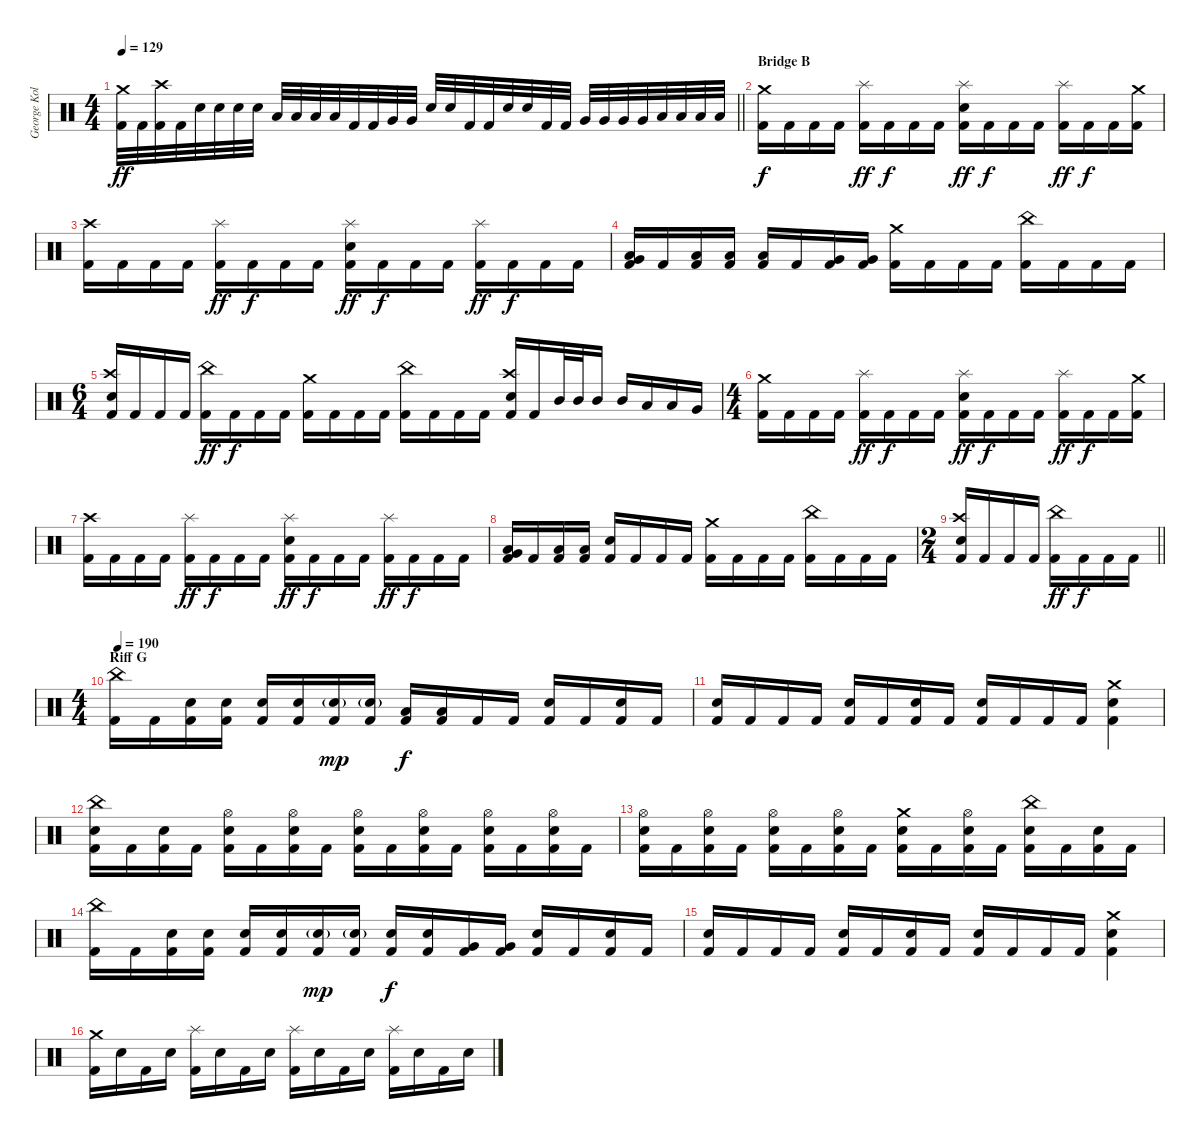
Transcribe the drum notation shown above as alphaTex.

\track ("George Kollias" "George Kol") {instrument percussion}
\staff {score}
\articulation defaults
\ts (4 4)
\tempo 129
\clef neutral
\barLineRight lightlight
\ks c
("Crash medium (hit)" "Kick (hit) 2").32{dy ff} "Kick (hit) 2".32 ("Crash high (hit)" "Kick (hit) 2").32 "Kick (hit) 2".32 "Electric Snare (hit)".32 "Electric Snare (hit)".32 "Electric Snare (hit)".32 "Electric Snare (hit)".32 "Low Tom (hit)".32 "Low Tom (hit)".32 "Low Tom (hit)".32 "Low Tom (hit)".32 "Kick (hit) 2".32 "Kick (hit) 2".32 "Very Low Tom (hit)".32 "Very Low Tom (hit)".32 "Electric Snare (hit)".32 "Electric Snare (hit)".32 "Kick (hit) 2".32 "Kick (hit) 2".32 "Electric Snare (hit)".32 "Electric Snare (hit)".32 "Kick (hit) 2".32 "Kick (hit) 2".32 "Very Low Tom (hit)".32 "Very Low Tom (hit)".32 "Very Low Tom (hit)".32 "Very Low Tom (hit)".32 "Low Floor Tom (hit)".32 "Low Floor Tom (hit)".32 "Low Floor Tom (hit)".32 "Low Floor Tom (hit)".32 |
\section ("" "Bridge B")
("Crash medium (hit)" "Kick (hit) 2").16{dy f} "Kick (hit) 2".16 "Kick (hit) 2".16 "Kick (hit) 2".16 ("Splash (hit)" "Kick (hit) 2").16{dy ff} "Kick (hit) 2".16{dy f} "Kick (hit) 2".16 "Kick (hit) 2".16 ("Splash (hit)" "Electric Snare (hit)" "Kick (hit) 2").16{dy ff} "Kick (hit) 2".16{dy f} "Kick (hit) 2".16 "Kick (hit) 2".16 ("Splash (hit)" "Kick (hit) 2").16{dy ff} "Kick (hit) 2".16{dy f} "Kick (hit) 2".16 ("Crash medium (hit)" "Kick (hit) 2").16 |
("Crash high (hit)" "Kick (hit) 2").16 "Kick (hit) 2".16 "Kick (hit) 2".16 "Kick (hit) 2".16 ("Splash (hit)" "Kick (hit) 2").16{dy ff} "Kick (hit) 2".16{dy f} "Kick (hit) 2".16 "Kick (hit) 2".16 ("Splash (hit)" "Electric Snare (hit)" "Kick (hit) 2").16{dy ff} "Kick (hit) 2".16{dy f} "Kick (hit) 2".16 "Kick (hit) 2".16 ("Splash (hit)" "Kick (hit) 2").16{dy ff} "Kick (hit) 2".16{dy f} "Kick (hit) 2".16 "Kick (hit) 2".16 |
("Low Tom (hit)" "Very Low Tom (hit)" "Kick (hit) 2").16 "Kick (hit) 2".16 ("Low Tom (hit)" "Kick (hit) 2").16 ("Low Tom (hit)" "Kick (hit) 2").16 ("Low Tom (hit)" "Kick (hit) 2").16 "Kick (hit) 2".16 ("Very Low Tom (hit)" "Kick (hit) 2").16 ("Very Low Tom (hit)" "Kick (hit) 2").16 ("Crash medium (hit)" "Kick (hit) 2").16 "Kick (hit) 2".16 "Kick (hit) 2".16 "Kick (hit) 2".16 ("China (hit)" "Kick (hit) 2").16 "Kick (hit) 2".16 "Kick (hit) 2".16 "Kick (hit) 2".16 |
\ts (6 4)
("Crash high (hit)" "Electric Snare (hit)" "Kick (hit) 2").16 "Kick (hit) 2".16 "Kick (hit) 2".16 "Kick (hit) 2".16 ("China (hit)" "Kick (hit) 2").16{dy ff} "Kick (hit) 2".16{dy f} "Kick (hit) 2".16 "Kick (hit) 2".16 ("Crash medium (hit)" "Kick (hit) 2").16 "Kick (hit) 2".16 "Kick (hit) 2".16 "Kick (hit) 2".16 ("China (hit)" "Kick (hit) 2").16 "Kick (hit) 2".16 "Kick (hit) 2".16 "Kick (hit) 2".16 ("Crash high (hit)" "Electric Snare (hit)" "Kick (hit) 2").16 "Kick (hit) 2".16 "Mid Tom (hit)".32 "Mid Tom (hit)".32 "Mid Tom (hit)".16 "Mid Tom (hit)".16 "Low Tom (hit)".16 "Low Tom (hit)".16 "Very Low Tom (hit)".16 |
\ts (4 4)
("Crash medium (hit)" "Kick (hit) 2").16 "Kick (hit) 2".16 "Kick (hit) 2".16 "Kick (hit) 2".16 ("Splash (hit)" "Kick (hit) 2").16{dy ff} "Kick (hit) 2".16{dy f} "Kick (hit) 2".16 "Kick (hit) 2".16 ("Splash (hit)" "Electric Snare (hit)" "Kick (hit) 2").16{dy ff} "Kick (hit) 2".16{dy f} "Kick (hit) 2".16 "Kick (hit) 2".16 ("Splash (hit)" "Kick (hit) 2").16{dy ff} "Kick (hit) 2".16{dy f} "Kick (hit) 2".16 ("Crash medium (hit)" "Kick (hit) 2").16 |
("Crash high (hit)" "Kick (hit) 2").16 "Kick (hit) 2".16 "Kick (hit) 2".16 "Kick (hit) 2".16 ("Splash (hit)" "Kick (hit) 2").16{dy ff} "Kick (hit) 2".16{dy f} "Kick (hit) 2".16 "Kick (hit) 2".16 ("Splash (hit)" "Electric Snare (hit)" "Kick (hit) 2").16{dy ff} "Kick (hit) 2".16{dy f} "Kick (hit) 2".16 "Kick (hit) 2".16 ("Splash (hit)" "Kick (hit) 2").16{dy ff} "Kick (hit) 2".16{dy f} "Kick (hit) 2".16 "Kick (hit) 2".16 |
("Low Tom (hit)" "Very Low Tom (hit)" "Kick (hit) 2").16 "Kick (hit) 2".16 ("Low Tom (hit)" "Kick (hit) 2").16 ("Low Tom (hit)" "Kick (hit) 2").16 ("Electric Snare (hit)" "Kick (hit) 2").16 "Kick (hit) 2".16 "Kick (hit) 2".16 "Kick (hit) 2".16 ("Crash medium (hit)" "Kick (hit) 2").16 "Kick (hit) 2".16 "Kick (hit) 2".16 "Kick (hit) 2".16 ("China (hit)" "Kick (hit) 2").16 "Kick (hit) 2".16 "Kick (hit) 2".16 "Kick (hit) 2".16 |
\ts (2 4)
\barLineRight lightlight
("Crash high (hit)" "Electric Snare (hit)" "Kick (hit) 2").16 "Kick (hit) 2".16 "Kick (hit) 2".16 "Kick (hit) 2".16 ("China (hit)" "Kick (hit) 2").16{dy ff} "Kick (hit) 2".16{dy f} "Kick (hit) 2".16 "Kick (hit) 2".16 |
\ts (4 4)
\section ("" "Riff G")
\tempo 190
("China (hit)" "Kick (hit) 2").16 "Kick (hit) 2".16 ("Electric Snare (hit)" "Kick (hit) 2").16 ("Electric Snare (hit)" "Kick (hit) 2").16 ("Electric Snare (hit)" "Kick (hit) 2").16 ("Electric Snare (hit)" "Kick (hit) 2").16 ("Electric Snare (hit)"{g} "Kick (hit) 2").16{dy mp} ("Electric Snare (hit)"{g} "Kick (hit) 2").16 ("Low Tom (hit)" "Kick (hit) 2").16{dy f} ("Low Tom (hit)" "Kick (hit) 2").16 "Kick (hit) 2".16 "Kick (hit) 2".16 ("Electric Snare (hit)" "Kick (hit) 2").16 "Kick (hit) 2".16 ("Electric Snare (hit)" "Kick (hit) 2").16 "Kick (hit) 2".16 |
("Electric Snare (hit)" "Kick (hit) 2").16 "Kick (hit) 2".16 "Kick (hit) 2".16 "Kick (hit) 2".16 ("Electric Snare (hit)" "Kick (hit) 2").16 "Kick (hit) 2".16 ("Electric Snare (hit)" "Kick (hit) 2").16 "Kick (hit) 2".16 ("Electric Snare (hit)" "Kick (hit) 2").16 "Kick (hit) 2".16 "Kick (hit) 2".16 "Kick (hit) 2".16 ("Crash medium (hit)" "Electric Snare (hit)" "Kick (hit) 2").4 |
("China (hit)" "Electric Snare (hit)" "Kick (hit) 2").16 "Kick (hit) 2".16 ("Electric Snare (hit)" "Kick (hit) 2").16 "Kick (hit) 2".16 ("Hi-Hat (open)" "Electric Snare (hit)" "Kick (hit) 2").16 "Kick (hit) 2".16 ("Hi-Hat (open)" "Electric Snare (hit)" "Kick (hit) 2").16 "Kick (hit) 2".16 ("Hi-Hat (open)" "Electric Snare (hit)" "Kick (hit) 2").16 "Kick (hit) 2".16 ("Hi-Hat (open)" "Electric Snare (hit)" "Kick (hit) 2").16 "Kick (hit) 2".16 ("Hi-Hat (open)" "Electric Snare (hit)" "Kick (hit) 2").16 "Kick (hit) 2".16 ("Hi-Hat (open)" "Electric Snare (hit)" "Kick (hit) 2").16 "Kick (hit) 2".16 |
("Hi-Hat (open)" "Electric Snare (hit)" "Kick (hit) 2").16 "Kick (hit) 2".16 ("Hi-Hat (open)" "Electric Snare (hit)" "Kick (hit) 2").16 "Kick (hit) 2".16 ("Hi-Hat (open)" "Electric Snare (hit)" "Kick (hit) 2").16 "Kick (hit) 2".16 ("Hi-Hat (open)" "Electric Snare (hit)" "Kick (hit) 2").16 "Kick (hit) 2".16 ("Crash medium (hit)" "Electric Snare (hit)" "Kick (hit) 2").16 "Kick (hit) 2".16 ("Hi-Hat (open)" "Electric Snare (hit)" "Kick (hit) 2").16 "Kick (hit) 2".16 ("China (hit)" "Electric Snare (hit)" "Kick (hit) 2").16 "Kick (hit) 2".16 ("Electric Snare (hit)" "Kick (hit) 2").16 "Kick (hit) 2".16 |
("China (hit)" "Kick (hit) 2").16 "Kick (hit) 2".16 ("Electric Snare (hit)" "Kick (hit) 2").16 ("Electric Snare (hit)" "Kick (hit) 2").16 ("Electric Snare (hit)" "Kick (hit) 2").16 ("Electric Snare (hit)" "Kick (hit) 2").16 ("Electric Snare (hit)"{g} "Kick (hit) 2").16{dy mp} ("Electric Snare (hit)"{g} "Kick (hit) 2").16 ("Electric Snare (hit)" "Kick (hit) 2").16{dy f} ("Electric Snare (hit)" "Kick (hit) 2").16 ("Very Low Tom (hit)" "Kick (hit) 2").16 ("Very Low Tom (hit)" "Kick (hit) 2").16 ("Electric Snare (hit)" "Kick (hit) 2").16 "Kick (hit) 2".16 ("Electric Snare (hit)" "Kick (hit) 2").16 "Kick (hit) 2".16 |
("Electric Snare (hit)" "Kick (hit) 2").16 "Kick (hit) 2".16 "Kick (hit) 2".16 "Kick (hit) 2".16 ("Electric Snare (hit)" "Kick (hit) 2").16 "Kick (hit) 2".16 ("Electric Snare (hit)" "Kick (hit) 2").16 "Kick (hit) 2".16 ("Electric Snare (hit)" "Kick (hit) 2").16 "Kick (hit) 2".16 "Kick (hit) 2".16 "Kick (hit) 2".16 ("Crash medium (hit)" "Electric Snare (hit)" "Kick (hit) 2").4 |
("Crash medium (hit)" "Kick (hit) 2").16 "Electric Snare (hit)".16 "Kick (hit) 2".16 "Electric Snare (hit)".16 ("Splash (hit)" "Kick (hit) 2").16 "Electric Snare (hit)".16 "Kick (hit) 2".16 "Electric Snare (hit)".16 ("Splash (hit)" "Kick (hit) 2").16 "Electric Snare (hit)".16 "Kick (hit) 2".16 "Electric Snare (hit)".16 ("Splash (hit)" "Kick (hit) 2").16 "Electric Snare (hit)".16 "Kick (hit) 2".16 "Electric Snare (hit)".16
